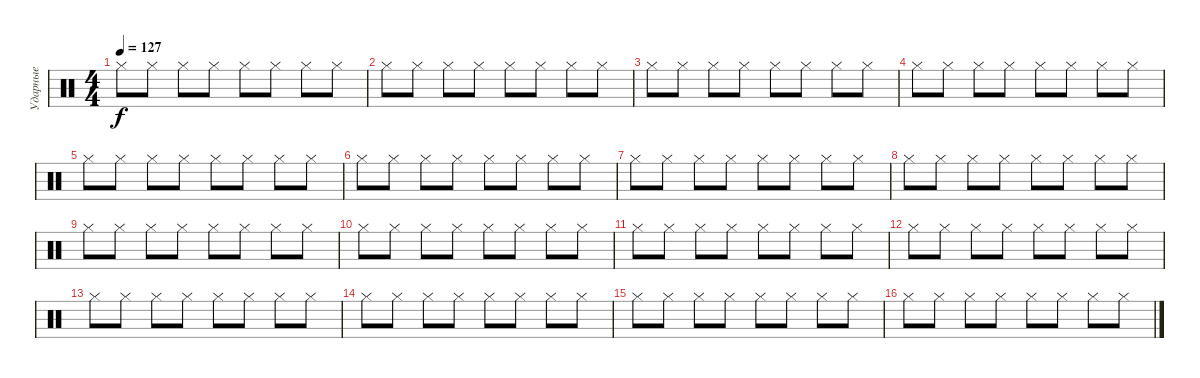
\track ("Ударные" "Ударные") {instrument percussion}
\staff {score}
\articulation defaults
\ts (4 4)
\tempo 127
\clef neutral
\ks c "Hi-Hat (closed)".8{dy f} "Hi-Hat (closed)".8 "Hi-Hat (closed)".8 "Hi-Hat (closed)".8 "Hi-Hat (closed)".8 "Hi-Hat (closed)".8 "Hi-Hat (closed)".8 "Hi-Hat (closed)".8
|
"Hi-Hat (closed)".8 "Hi-Hat (closed)".8 "Hi-Hat (closed)".8 "Hi-Hat (closed)".8 "Hi-Hat (closed)".8 "Hi-Hat (closed)".8 "Hi-Hat (closed)".8 "Hi-Hat (closed)".8 |
"Hi-Hat (closed)".8 "Hi-Hat (closed)".8 "Hi-Hat (closed)".8 "Hi-Hat (closed)".8 "Hi-Hat (closed)".8 "Hi-Hat (closed)".8 "Hi-Hat (closed)".8 "Hi-Hat (closed)".8 |
"Hi-Hat (closed)".8 "Hi-Hat (closed)".8 "Hi-Hat (closed)".8 "Hi-Hat (closed)".8 "Hi-Hat (closed)".8 "Hi-Hat (closed)".8 "Hi-Hat (closed)".8 "Hi-Hat (closed)".8 |
"Hi-Hat (closed)".8 "Hi-Hat (closed)".8 "Hi-Hat (closed)".8 "Hi-Hat (closed)".8 "Hi-Hat (closed)".8 "Hi-Hat (closed)".8 "Hi-Hat (closed)".8 "Hi-Hat (closed)".8 |
"Hi-Hat (closed)".8 "Hi-Hat (closed)".8 "Hi-Hat (closed)".8 "Hi-Hat (closed)".8 "Hi-Hat (closed)".8 "Hi-Hat (closed)".8 "Hi-Hat (closed)".8 "Hi-Hat (closed)".8 |
"Hi-Hat (closed)".8 "Hi-Hat (closed)".8 "Hi-Hat (closed)".8 "Hi-Hat (closed)".8 "Hi-Hat (closed)".8 "Hi-Hat (closed)".8 "Hi-Hat (closed)".8 "Hi-Hat (closed)".8 |
"Hi-Hat (closed)".8 "Hi-Hat (closed)".8 "Hi-Hat (closed)".8 "Hi-Hat (closed)".8 "Hi-Hat (closed)".8 "Hi-Hat (closed)".8 "Hi-Hat (closed)".8 "Hi-Hat (closed)".8 |
"Hi-Hat (closed)".8 "Hi-Hat (closed)".8 "Hi-Hat (closed)".8 "Hi-Hat (closed)".8 "Hi-Hat (closed)".8 "Hi-Hat (closed)".8 "Hi-Hat (closed)".8 "Hi-Hat (closed)".8 |
"Hi-Hat (closed)".8 "Hi-Hat (closed)".8 "Hi-Hat (closed)".8 "Hi-Hat (closed)".8 "Hi-Hat (closed)".8 "Hi-Hat (closed)".8 "Hi-Hat (closed)".8 "Hi-Hat (closed)".8 |
"Hi-Hat (closed)".8 "Hi-Hat (closed)".8 "Hi-Hat (closed)".8 "Hi-Hat (closed)".8 "Hi-Hat (closed)".8 "Hi-Hat (closed)".8 "Hi-Hat (closed)".8 "Hi-Hat (closed)".8 |
"Hi-Hat (closed)".8 "Hi-Hat (closed)".8 "Hi-Hat (closed)".8 "Hi-Hat (closed)".8 "Hi-Hat (closed)".8 "Hi-Hat (closed)".8 "Hi-Hat (closed)".8 "Hi-Hat (closed)".8 |
"Hi-Hat (closed)".8 "Hi-Hat (closed)".8 "Hi-Hat (closed)".8 "Hi-Hat (closed)".8 "Hi-Hat (closed)".8 "Hi-Hat (closed)".8 "Hi-Hat (closed)".8 "Hi-Hat (closed)".8 |
"Hi-Hat (closed)".8 "Hi-Hat (closed)".8 "Hi-Hat (closed)".8 "Hi-Hat (closed)".8 "Hi-Hat (closed)".8 "Hi-Hat (closed)".8 "Hi-Hat (closed)".8 "Hi-Hat (closed)".8 |
"Hi-Hat (closed)".8 "Hi-Hat (closed)".8 "Hi-Hat (closed)".8 "Hi-Hat (closed)".8 "Hi-Hat (closed)".8 "Hi-Hat (closed)".8 "Hi-Hat (closed)".8 "Hi-Hat (closed)".8 |
"Hi-Hat (closed)".8 "Hi-Hat (closed)".8 "Hi-Hat (closed)".8 "Hi-Hat (closed)".8 "Hi-Hat (closed)".8 "Hi-Hat (closed)".8 "Hi-Hat (closed)".8 "Hi-Hat (closed)".8
